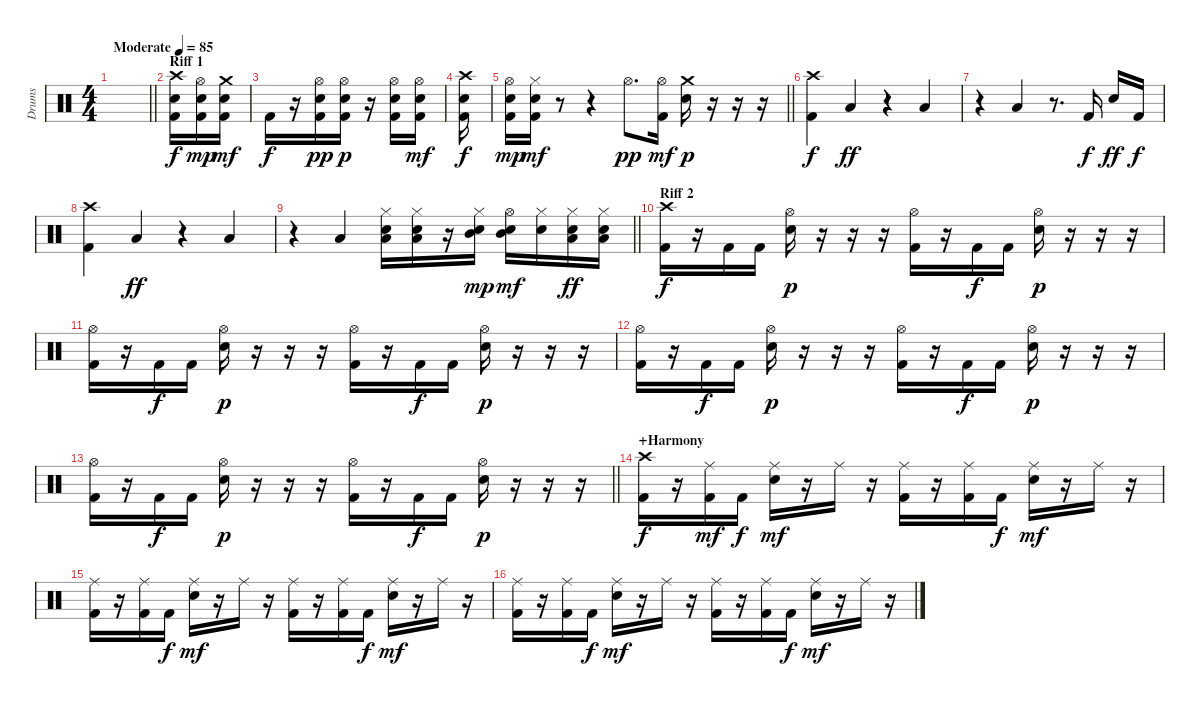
\track ("Drums" "Drums") {instrument percussion}
\staff {score}
\articulation defaults
\ts (4 4)
\tempo (85 "Moderate")
\clef neutral
\barLineRight lightlight
\ks c
|
\section ("" "Riff 1")
("Crash high (hit)" "Electric Snare (hit)" "Kick (hit) 2").16 ("Hi-Hat (open)" "Electric Snare (hit)" "Kick (hit) 2").16{dy mp} ("Crash medium (hit)" "Electric Snare (hit)" "Kick (hit) 2").16{dy mf} |
"Kick (hit) 2".16{dy f} r.16 ("Hi-Hat (open)" "Electric Snare (hit)" "Kick (hit) 2").16{dy pp} ("Hi-Hat (open)" "Electric Snare (hit)" "Kick (hit) 2").16{dy p} r.16 ("Hi-Hat (open)" "Electric Snare (hit)" "Kick (hit) 2").16 ("Hi-Hat (open)" "Electric Snare (hit)" "Kick (hit) 2").16{dy mf} |
("Crash high (hit)" "Electric Snare (hit)" "Kick (hit) 2").16{dy f} |
\barLineRight lightlight
("Hi-Hat (open)" "Electric Snare (hit)" "Kick (hit) 2").16{dy mp} ("Hi-Hat (closed)" "Electric Snare (hit)" "Kick (hit) 2").16{dy mf} r.8 r.4 "Hi-Hat (open)".8{d dy pp} ("Hi-Hat (open)" "Kick (hit) 2").16{dy mf} ("Crash medium (hit)" "Electric Snare (hit)").16{dy p} r.16 r.16 r.16 |
\section ("" "")
("Crash high (hit)" "Kick (hit) 2").4{dy f} "Low Floor Tom (hit)".4{dy ff} r.4 "Low Floor Tom (hit)".4 |
r.4 "Low Floor Tom (hit)".4 r.8{d} "Kick (hit) 2".16{dy f} "Electric Snare (hit)".16{dy ff} "Kick (hit) 2".16{dy f} |
("Crash high (hit)" "Kick (hit) 2").4 "Low Floor Tom (hit)".4{dy ff} r.4 "Low Floor Tom (hit)".4 |
\barLineRight lightlight
r.4 "Low Floor Tom (hit)".4 ("Hi-Hat (closed)" "Low Floor Tom (hit)" "Electric Snare (hit)").16 ("Hi-Hat (closed)" "Low Floor Tom (hit)" "Electric Snare (hit)").16 r.16 ("Hi-Hat (closed)" "Mid Tom (hit)" "Electric Snare (hit)").16{dy mp} ("Hi-Hat (open)" "Mid Tom (hit)" "Electric Snare (hit)").16{dy mf} ("Hi-Hat (closed)" "Electric Snare (hit)").16 ("Hi-Hat (closed)" "Low Tom (hit)" "Electric Snare (hit)").16{dy ff} ("Hi-Hat (closed)" "Low Tom (hit)" "Electric Snare (hit)").16 |
\section ("" "Riff 2")
("Crash high (hit)" "Kick (hit) 2").16{dy f} r.16 "Kick (hit) 2".16 "Kick (hit) 2".16 ("Hi-Hat (open)" "Electric Snare (hit)").16{dy p} r.16 r.16 r.16 ("Hi-Hat (open)" "Kick (hit) 2").16 r.16 "Kick (hit) 2".16{dy f} "Kick (hit) 2".16 ("Hi-Hat (open)" "Electric Snare (hit)").16{dy p} r.16 r.16 r.16 |
("Hi-Hat (open)" "Kick (hit) 2").16 r.16 "Kick (hit) 2".16{dy f} "Kick (hit) 2".16 ("Hi-Hat (open)" "Electric Snare (hit)").16{dy p} r.16 r.16 r.16 ("Hi-Hat (open)" "Kick (hit) 2").16 r.16 "Kick (hit) 2".16{dy f} "Kick (hit) 2".16 ("Hi-Hat (open)" "Electric Snare (hit)").16{dy p} r.16 r.16 r.16 |
("Hi-Hat (open)" "Kick (hit) 2").16 r.16 "Kick (hit) 2".16{dy f} "Kick (hit) 2".16 ("Hi-Hat (open)" "Electric Snare (hit)").16{dy p} r.16 r.16 r.16 ("Hi-Hat (open)" "Kick (hit) 2").16 r.16 "Kick (hit) 2".16{dy f} "Kick (hit) 2".16 ("Hi-Hat (open)" "Electric Snare (hit)").16{dy p} r.16 r.16 r.16 |
\barLineRight lightlight
("Hi-Hat (open)" "Kick (hit) 2").16 r.16 "Kick (hit) 2".16{dy f} "Kick (hit) 2".16 ("Hi-Hat (open)" "Electric Snare (hit)").16{dy p} r.16 r.16 r.16 ("Hi-Hat (open)" "Kick (hit) 2").16 r.16 "Kick (hit) 2".16{dy f} "Kick (hit) 2".16 ("Hi-Hat (open)" "Electric Snare (hit)").16{dy p} r.16 r.16 r.16 |
\section ("" "+Harmony")
("Crash high (hit)" "Kick (hit) 2").16{dy f} r.16 ("Ride (middle)" "Kick (hit) 2").16{dy mf} "Kick (hit) 2".16{dy f} ("Ride (middle)" "Electric Snare (hit)").16{dy mf} r.16 "Ride (middle)".16 r.16 ("Ride (middle)" "Kick (hit) 2").16 r.16 ("Ride (middle)" "Kick (hit) 2").16 "Kick (hit) 2".16{dy f} ("Ride (middle)" "Electric Snare (hit)").16{dy mf} r.16 "Ride (middle)".16 r.16 |
("Ride (middle)" "Kick (hit) 2").16 r.16 ("Ride (middle)" "Kick (hit) 2").16 "Kick (hit) 2".16{dy f} ("Ride (middle)" "Electric Snare (hit)").16{dy mf} r.16 "Ride (middle)".16 r.16 ("Ride (middle)" "Kick (hit) 2").16 r.16 ("Ride (middle)" "Kick (hit) 2").16 "Kick (hit) 2".16{dy f} ("Ride (middle)" "Electric Snare (hit)").16{dy mf} r.16 "Ride (middle)".16 r.16 |
("Ride (middle)" "Kick (hit) 2").16 r.16 ("Ride (middle)" "Kick (hit) 2").16 "Kick (hit) 2".16{dy f} ("Ride (middle)" "Electric Snare (hit)").16{dy mf} r.16 "Ride (middle)".16 r.16 ("Ride (middle)" "Kick (hit) 2").16 r.16 ("Ride (middle)" "Kick (hit) 2").16 "Kick (hit) 2".16{dy f} ("Ride (middle)" "Electric Snare (hit)").16{dy mf} r.16 "Ride (middle)".16 r.16
